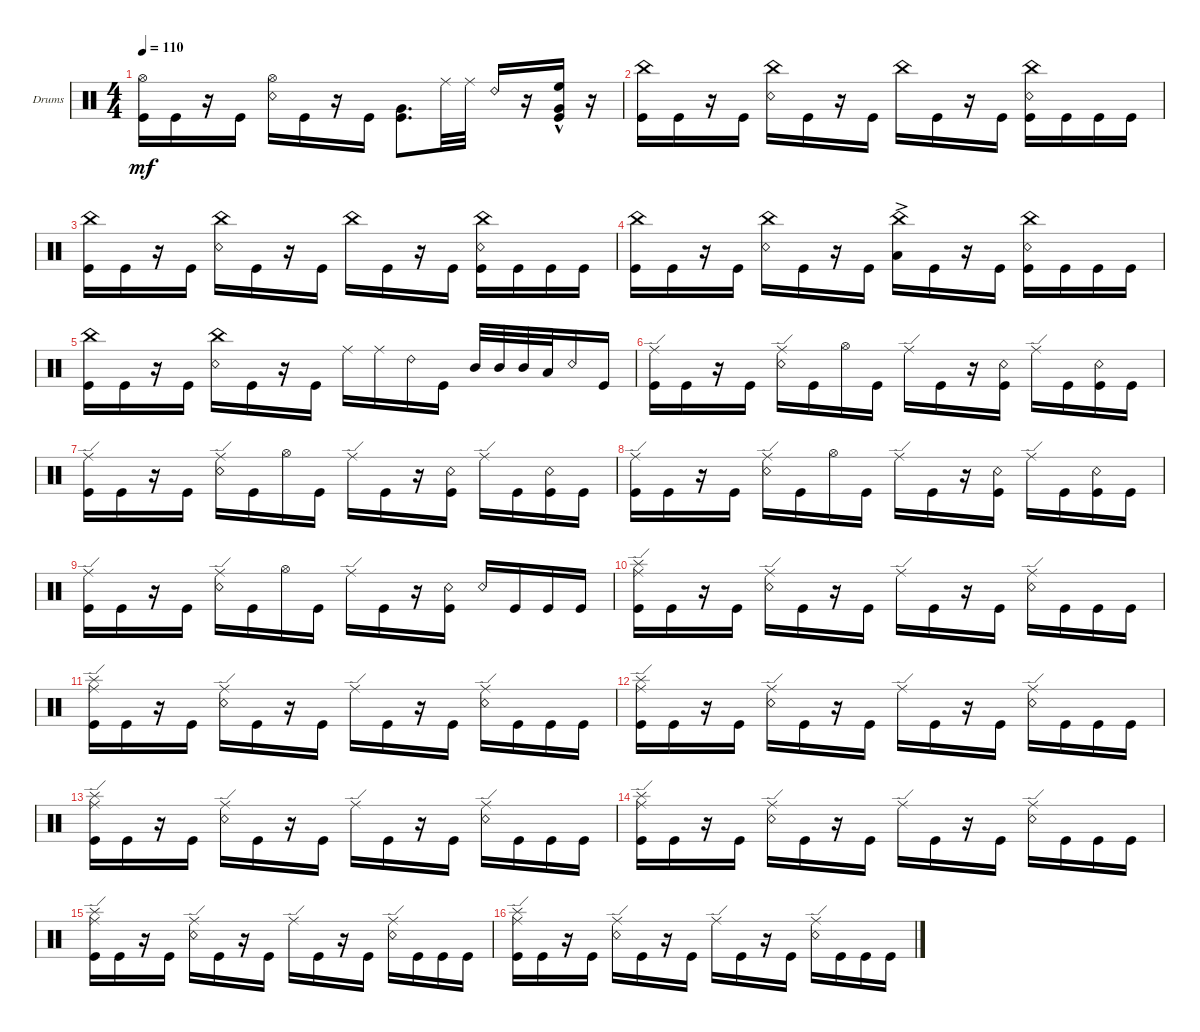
\defaultSystemsLayout 4
\bracketExtendMode groupsimilarinstruments
\firstSystemTrackNameOrientation horizontal
\otherSystemsTrackNameOrientation horizontal
\track ("Drumkit" "Drums") {instrument percussion}
\staff {score}
\articulation defaults
\ts (4 4)
\tempo 110
\clef neutral
\ks c
("Kick (hit)" "Hi-Hat (open)").16{dy mf} "Kick (hit)".16 r.16 "Kick (hit)".16 ("Snare (rim shot)" "Hi-Hat (open)").16 "Kick (hit)".16 r.16 "Kick (hit)".16 ("Kick (hit)" "Very Low Tom (hit)").8{d} "Ride (middle)".32 "Ride (middle)".32 "Ride (bell) 2".16 r.16 ("Very Low Tom (hit)"{hac} "High Floor Tom (hit)"{hac} "Kick (hit)").16 r.16 |
("Kick (hit)" "China (hit)").16 "Kick (hit)".16 r.16 "Kick (hit)".16 ("Snare (rim shot)" "China (hit)").16 "Kick (hit)".16 r.16 "Kick (hit)".16 "China (hit)".16 "Kick (hit)".16 r.16 "Kick (hit)".16 ("Snare (rim shot)" "Kick (hit)" "China (hit)").16 "Kick (hit)".16 "Kick (hit)".16 "Kick (hit)".16 |
("Kick (hit)" "China (hit)").16 "Kick (hit)".16 r.16 "Kick (hit)".16 ("Snare (rim shot)" "China (hit)").16 "Kick (hit)".16 r.16 "Kick (hit)".16 "China (hit)".16 "Kick (hit)".16 r.16 "Kick (hit)".16 ("Snare (rim shot)" "Kick (hit)" "China (hit)").16 "Kick (hit)".16 "Kick (hit)".16 "Kick (hit)".16 |
("Kick (hit)" "China (hit)").16 "Kick (hit)".16 r.16 "Kick (hit)".16 ("Snare (rim shot)" "China (hit)").16 "Kick (hit)".16 r.16 "Kick (hit)".16 ("China (hit)" "Low Tom (hit)"{ac}).16 "Kick (hit)".16 r.16 "Kick (hit)".16 ("Snare (rim shot)" "Kick (hit)" "China (hit)").16 "Kick (hit)".16 "Kick (hit)".16 "Kick (hit)".16 |
("Kick (hit)" "China (hit)").16 "Kick (hit)".16 r.16 "Kick (hit)".16 ("Snare (rim shot)" "China (hit)").16 "Kick (hit)".16 r.16 "Kick (hit)".16 "Ride (middle)".16 "Ride (middle)".16 "Ride (bell) 2".16 "Kick (hit)".16 "Mid Tom (hit)".32 "Mid Tom (hit)".32 "Mid Tom (hit)".32 "Low Tom (hit)".32 "Snare (rim shot)".16 "Kick (hit)".16 |
("Ride (edge)" "Kick (hit)").16 "Kick (hit)".16 r.16 "Kick (hit)".16 ("Snare (rim shot)" "Ride (edge)").16 "Kick (hit)".16 "Hi-Hat (open)".16 "Kick (hit)".16 "Ride (edge)".16 "Kick (hit)".16 r.16 ("Kick (hit)" "Snare (rim shot)").16 "Ride (edge)".16 "Kick (hit)".16 ("Kick (hit)" "Snare (rim shot)").16 "Kick (hit)".16 |
("Ride (edge)" "Kick (hit)").16 "Kick (hit)".16 r.16 "Kick (hit)".16 ("Snare (rim shot)" "Ride (edge)").16 "Kick (hit)".16 "Hi-Hat (open)".16 "Kick (hit)".16 "Ride (edge)".16 "Kick (hit)".16 r.16 ("Kick (hit)" "Snare (rim shot)").16 "Ride (edge)".16 "Kick (hit)".16 ("Kick (hit)" "Snare (rim shot)").16 "Kick (hit)".16 |
("Ride (edge)" "Kick (hit)").16 "Kick (hit)".16 r.16 "Kick (hit)".16 ("Snare (rim shot)" "Ride (edge)").16 "Kick (hit)".16 "Hi-Hat (open)".16 "Kick (hit)".16 "Ride (edge)".16 "Kick (hit)".16 r.16 ("Kick (hit)" "Snare (rim shot)").16 "Ride (edge)".16 "Kick (hit)".16 ("Kick (hit)" "Snare (rim shot)").16 "Kick (hit)".16 |
("Ride (edge)" "Kick (hit)").16 "Kick (hit)".16 r.16 "Kick (hit)".16 ("Snare (rim shot)" "Ride (edge)").16 "Kick (hit)".16 "Hi-Hat (open)".16 "Kick (hit)".16 "Ride (edge)".16 "Kick (hit)".16 r.16 ("Kick (hit)" "Snare (rim shot)").16 "Snare (rim shot)".16 "Kick (hit)".16 "Kick (hit)".16 "Kick (hit)".16 |
("Ride (edge)" "Kick (hit)" "Splash (hit)").16 "Kick (hit)".16 r.16 "Kick (hit)".16 ("Snare (rim shot)" "Ride (edge)").16 "Kick (hit)".16 r.16 "Kick (hit)".16 "Ride (edge)".16 "Kick (hit)".16 r.16 "Kick (hit)".16 ("Ride (edge)" "Snare (rim shot)").16 "Kick (hit)".16 "Kick (hit)".16 "Kick (hit)".16 |
("Ride (edge)" "Kick (hit)" "Splash (hit)").16 "Kick (hit)".16 r.16 "Kick (hit)".16 ("Snare (rim shot)" "Ride (edge)").16 "Kick (hit)".16 r.16 "Kick (hit)".16 "Ride (edge)".16 "Kick (hit)".16 r.16 "Kick (hit)".16 ("Ride (edge)" "Snare (rim shot)").16 "Kick (hit)".16 "Kick (hit)".16 "Kick (hit)".16 |
("Ride (edge)" "Kick (hit)" "Splash (hit)").16 "Kick (hit)".16 r.16 "Kick (hit)".16 ("Snare (rim shot)" "Ride (edge)").16 "Kick (hit)".16 r.16 "Kick (hit)".16 "Ride (edge)".16 "Kick (hit)".16 r.16 "Kick (hit)".16 ("Ride (edge)" "Snare (rim shot)").16 "Kick (hit)".16 "Kick (hit)".16 "Kick (hit)".16 |
("Ride (edge)" "Kick (hit)" "Splash (hit)").16 "Kick (hit)".16 r.16 "Kick (hit)".16 ("Snare (rim shot)" "Ride (edge)").16 "Kick (hit)".16 r.16 "Kick (hit)".16 "Ride (edge)".16 "Kick (hit)".16 r.16 "Kick (hit)".16 ("Ride (edge)" "Snare (rim shot)").16 "Kick (hit)".16 "Kick (hit)".16 "Kick (hit)".16 |
("Ride (edge)" "Kick (hit)" "Splash (hit)").16 "Kick (hit)".16 r.16 "Kick (hit)".16 ("Snare (rim shot)" "Ride (edge)").16 "Kick (hit)".16 r.16 "Kick (hit)".16 "Ride (edge)".16 "Kick (hit)".16 r.16 "Kick (hit)".16 ("Ride (edge)" "Snare (rim shot)").16 "Kick (hit)".16 "Kick (hit)".16 "Kick (hit)".16 |
("Ride (edge)" "Kick (hit)" "Splash (hit)").16 "Kick (hit)".16 r.16 "Kick (hit)".16 ("Snare (rim shot)" "Ride (edge)").16 "Kick (hit)".16 r.16 "Kick (hit)".16 "Ride (edge)".16 "Kick (hit)".16 r.16 "Kick (hit)".16 ("Ride (edge)" "Snare (rim shot)").16 "Kick (hit)".16 "Kick (hit)".16 "Kick (hit)".16 |
("Ride (edge)" "Kick (hit)" "Splash (hit)").16 "Kick (hit)".16 r.16 "Kick (hit)".16 ("Snare (rim shot)" "Ride (edge)").16 "Kick (hit)".16 r.16 "Kick (hit)".16 "Ride (edge)".16 "Kick (hit)".16 r.16 "Kick (hit)".16 ("Ride (edge)" "Snare (rim shot)").16 "Kick (hit)".16 "Kick (hit)".16 "Kick (hit)".16
